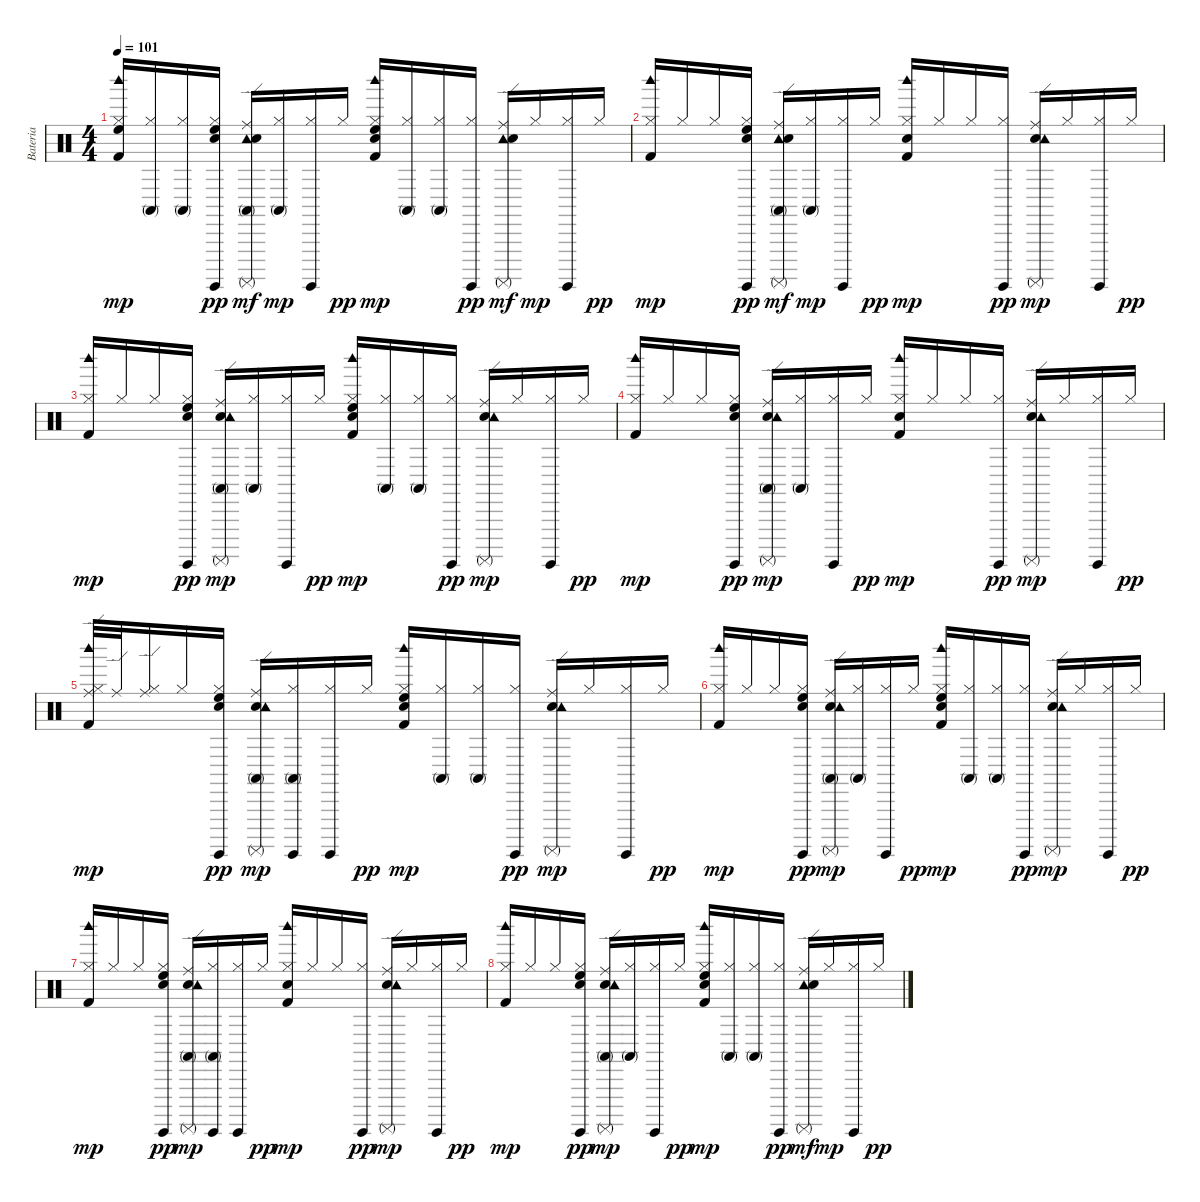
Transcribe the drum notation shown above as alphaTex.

\track ("Bateria" "Bateria") {instrument percussion}
\staff {score}
\articulation defaults
\ts (4 4)
\tempo 101
\clef neutral
\ks c
("High Floor Tom (hit)" "Kick (hit) 2" "Hi-Hat (closed)" "Woodblock high (hit)").16{dy mp} ("Conga high (mute)" "Hi-Hat (closed)").16 ("Conga high (mute)" "Hi-Hat (closed)").16 ("High Floor Tom (hit)" "Snare (hit)" "Surdo (hit)" "Hi-Hat (closed)").16{dy pp} ("Conga high (mute)" "Ride (edge)" "Tambourine (hit)" "Electric Snare (hit)" "Surdo (mute)").16{dy mf} ("Conga high (mute)" "Hi-Hat (closed)").16{dy mp} ("Surdo (hit)" "Hi-Hat (closed)").16 "Hi-Hat (closed)".16{dy pp} ("High Floor Tom (hit)" "Snare (hit)" "Hi-Hat (closed)" "Woodblock high (hit)" "Kick (hit) 2").16{dy mp} ("Conga high (mute)" "Hi-Hat (closed)").16 ("Conga high (mute)" "Hi-Hat (closed)").16 ("Surdo (hit)" "Hi-Hat (closed)").16{dy pp} ("Ride (edge)" "Tambourine (hit)" "Electric Snare (hit)" "Surdo (mute)").16{dy mf} "Hi-Hat (closed)".16{dy mp} ("Surdo (hit)" "Hi-Hat (closed)").16 "Hi-Hat (closed)".16{dy pp} |
("Woodblock high (hit)" "Kick (hit) 2" "Hi-Hat (closed)").16{dy mp} "Hi-Hat (closed)".16 "Hi-Hat (closed)".16 ("High Floor Tom (hit)" "Snare (hit)" "Surdo (hit)" "Hi-Hat (closed)").16{dy pp} ("Conga high (mute)" "Ride (edge)" "Surdo (mute)" "Tambourine (hit)" "Electric Snare (hit)").16{dy mf} ("Conga high (mute)" "Hi-Hat (closed)").16{dy mp} ("Surdo (hit)" "Hi-Hat (closed)").16 "Hi-Hat (closed)".16{dy pp} ("Snare (hit)" "Kick (hit) 2" "Hi-Hat (closed)" "Woodblock high (hit)").16{dy mp} "Hi-Hat (closed)".16 "Hi-Hat (closed)".16 ("Surdo (hit)" "Hi-Hat (closed)").16{dy pp} ("Ride (edge)" "Electric Snare (hit)" "Surdo (mute)" "Tambourine (hit)").16{dy mp} "Hi-Hat (closed)".16 ("Surdo (hit)" "Hi-Hat (closed)").16 "Hi-Hat (closed)".16{dy pp} |
("Kick (hit) 2" "Hi-Hat (closed)" "Woodblock high (hit)").16{dy mp} "Hi-Hat (closed)".16 "Hi-Hat (closed)".16 ("High Floor Tom (hit)" "Snare (hit)" "Surdo (hit)" "Hi-Hat (closed)").16{dy pp} ("Conga high (mute)" "Ride (edge)" "Electric Snare (hit)" "Surdo (mute)" "Tambourine (hit)").16{dy mp} ("Conga high (mute)" "Hi-Hat (closed)").16 ("Surdo (hit)" "Hi-Hat (closed)").16 "Hi-Hat (closed)".16{dy pp} ("High Floor Tom (hit)" "Snare (hit)" "Kick (hit) 2" "Hi-Hat (closed)" "Woodblock high (hit)").16{dy mp} ("Conga high (mute)" "Hi-Hat (closed)").16 ("Conga high (mute)" "Hi-Hat (closed)").16 ("Surdo (hit)" "Hi-Hat (closed)").16{dy pp} ("Ride (edge)" "Electric Snare (hit)" "Surdo (mute)" "Tambourine (hit)").16{dy mp} "Hi-Hat (closed)".16 ("Surdo (hit)" "Hi-Hat (closed)").16 "Hi-Hat (closed)".16{dy pp} |
("Hi-Hat (closed)" "Woodblock high (hit)" "Kick (hit) 2").16{dy mp} "Hi-Hat (closed)".16 "Hi-Hat (closed)".16 ("High Floor Tom (hit)" "Snare (hit)" "Surdo (hit)" "Hi-Hat (closed)").16{dy pp} ("Conga high (mute)" "Ride (edge)" "Electric Snare (hit)" "Surdo (mute)" "Tambourine (hit)").16{dy mp} ("Conga high (mute)" "Hi-Hat (closed)").16 ("Surdo (hit)" "Hi-Hat (closed)").16 "Hi-Hat (closed)".16{dy pp} ("Snare (hit)" "Kick (hit) 2" "Hi-Hat (closed)" "Woodblock high (hit)").16{dy mp} "Hi-Hat (closed)".16 "Hi-Hat (closed)".16 ("Surdo (hit)" "Hi-Hat (closed)").16{dy pp} ("Ride (edge)" "Electric Snare (hit)" "Surdo (mute)" "Tambourine (hit)").16{dy mp} "Hi-Hat (closed)".16 ("Surdo (hit)" "Hi-Hat (closed)").16 "Hi-Hat (closed)".16{dy pp} |
("Ride (edge)" "Kick (hit) 2" "Hi-Hat (closed)" "Woodblock high (hit)").32{dy mp} "Ride (edge)".32 ("Ride (edge)" "Hi-Hat (closed)").16 "Hi-Hat (closed)".16 ("High Floor Tom (hit)" "Snare (hit)" "Surdo (hit)" "Hi-Hat (closed)").16{dy pp} ("Conga high (mute)" "Ride (edge)" "Electric Snare (hit)" "Surdo (mute)" "Tambourine (hit)").16{dy mp} ("Conga high (mute)" "Surdo (hit)" "Hi-Hat (closed)").16 ("Surdo (hit)" "Hi-Hat (closed)").16 "Hi-Hat (closed)".16{dy pp} ("High Floor Tom (hit)" "Snare (hit)" "Woodblock high (hit)" "Kick (hit) 2" "Hi-Hat (closed)").16{dy mp} ("Conga high (mute)" "Hi-Hat (closed)").16 ("Conga high (mute)" "Hi-Hat (closed)").16 ("Surdo (hit)" "Hi-Hat (closed)").16{dy pp} ("Ride (edge)" "Electric Snare (hit)" "Surdo (mute)" "Tambourine (hit)").16{dy mp} "Hi-Hat (closed)".16 ("Surdo (hit)" "Hi-Hat (closed)").16 "Hi-Hat (closed)".16{dy pp} |
("Hi-Hat (closed)" "Woodblock high (hit)" "Kick (hit) 2").16{dy mp} "Hi-Hat (closed)".16 "Hi-Hat (closed)".16 ("High Floor Tom (hit)" "Snare (hit)" "Surdo (hit)" "Hi-Hat (closed)").16{dy pp} ("Conga high (mute)" "Ride (edge)" "Electric Snare (hit)" "Surdo (mute)" "Tambourine (hit)").16{dy mp} ("Conga high (mute)" "Hi-Hat (closed)").16 ("Surdo (hit)" "Hi-Hat (closed)").16 "Hi-Hat (closed)".16{dy pp} ("High Floor Tom (hit)" "Snare (hit)" "Kick (hit) 2" "Hi-Hat (closed)" "Woodblock high (hit)").16{dy mp} ("Conga high (mute)" "Hi-Hat (closed)").16 ("Conga high (mute)" "Hi-Hat (closed)").16 ("Surdo (hit)" "Hi-Hat (closed)").16{dy pp} ("Ride (edge)" "Electric Snare (hit)" "Surdo (mute)" "Tambourine (hit)").16{dy mp} "Hi-Hat (closed)".16 ("Surdo (hit)" "Hi-Hat (closed)").16 "Hi-Hat (closed)".16{dy pp} |
("Kick (hit) 2" "Hi-Hat (closed)" "Woodblock high (hit)").16{dy mp} "Hi-Hat (closed)".16 "Hi-Hat (closed)".16 ("High Floor Tom (hit)" "Snare (hit)" "Surdo (hit)" "Hi-Hat (closed)").16{dy pp} ("Conga high (mute)" "Ride (edge)" "Electric Snare (hit)" "Surdo (mute)" "Tambourine (hit)").16{dy mp} ("Conga high (mute)" "Surdo (hit)" "Hi-Hat (closed)").16 ("Surdo (hit)" "Hi-Hat (closed)").16 "Hi-Hat (closed)".16{dy pp} ("Snare (hit)" "Kick (hit) 2" "Hi-Hat (closed)" "Woodblock high (hit)").16{dy mp} "Hi-Hat (closed)".16 "Hi-Hat (closed)".16 ("Surdo (hit)" "Hi-Hat (closed)").16{dy pp} ("Ride (edge)" "Electric Snare (hit)" "Surdo (mute)" "Tambourine (hit)").16{dy mp} "Hi-Hat (closed)".16 ("Surdo (hit)" "Hi-Hat (closed)").16 "Hi-Hat (closed)".16{dy pp} |
("Kick (hit) 2" "Hi-Hat (closed)" "Woodblock high (hit)").16{dy mp} "Hi-Hat (closed)".16 "Hi-Hat (closed)".16 ("High Floor Tom (hit)" "Snare (hit)" "Surdo (hit)" "Hi-Hat (closed)").16{dy pp} ("Conga high (mute)" "Ride (edge)" "Electric Snare (hit)" "Surdo (mute)" "Tambourine (hit)").16{dy mp} ("Conga high (mute)" "Hi-Hat (closed)").16 ("Surdo (hit)" "Hi-Hat (closed)").16 "Hi-Hat (closed)".16{dy pp} ("High Floor Tom (hit)" "Snare (hit)" "Kick (hit) 2" "Hi-Hat (closed)" "Woodblock high (hit)").16{dy mp} ("Conga high (mute)" "Hi-Hat (closed)").16 ("Conga high (mute)" "Hi-Hat (closed)").16 ("Surdo (hit)" "Hi-Hat (closed)").16{dy pp} ("Ride (edge)" "Tambourine (hit)" "Electric Snare (hit)" "Surdo (mute)").16{dy mf} "Hi-Hat (closed)".16{dy mp} ("Surdo (hit)" "Hi-Hat (closed)").16 "Hi-Hat (closed)".16{dy pp}
